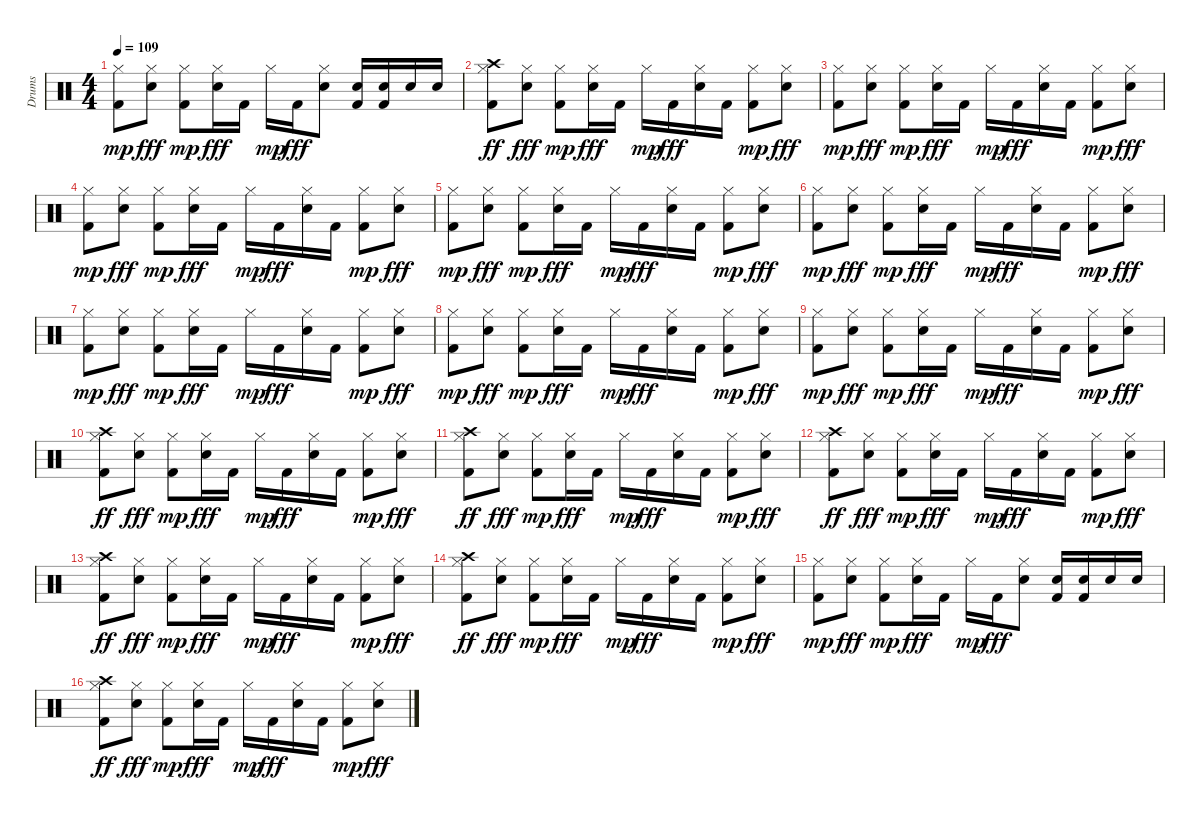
\track ("Drums" "Drums") {instrument percussion}
\staff {score}
\articulation defaults
\ts (4 4)
\tempo 109
\clef neutral
\ks c
("Kick (hit) 2" "Hi-Hat (closed)").8{dy mp} ("Snare (hit) 2" "Hi-Hat (closed)").8{dy fff} ("Kick (hit) 2" "Hi-Hat (closed)").8{dy mp} ("Snare (hit) 2" "Hi-Hat (closed)").16{dy fff} "Kick (hit) 2".16 "Hi-Hat (closed)".16{dy mp} "Kick (hit) 2".16{dy fff} ("Snare (hit) 2" "Hi-Hat (closed)").8 ("Snare (hit) 2" "Kick (hit) 2").16 ("Snare (hit) 2" "Kick (hit) 2").16 "Snare (hit) 2".16 "Snare (hit) 2".16 |
("Kick (hit) 2" "Hi-Hat (closed)" "Crash high (hit)").8{dy ff} ("Snare (hit) 2" "Hi-Hat (closed)").8{dy fff} ("Kick (hit) 2" "Hi-Hat (closed)").8{dy mp} ("Snare (hit) 2" "Hi-Hat (closed)").16{dy fff} "Kick (hit) 2".16 "Hi-Hat (closed)".16{dy mp} "Kick (hit) 2".16{dy fff} ("Snare (hit) 2" "Hi-Hat (closed)").16 "Kick (hit) 2".16 ("Kick (hit) 2" "Hi-Hat (closed)").8{dy mp} ("Snare (hit) 2" "Hi-Hat (closed)").8{dy fff} |
("Kick (hit) 2" "Hi-Hat (closed)").8{dy mp} ("Snare (hit) 2" "Hi-Hat (closed)").8{dy fff} ("Kick (hit) 2" "Hi-Hat (closed)").8{dy mp} ("Snare (hit) 2" "Hi-Hat (closed)").16{dy fff} "Kick (hit) 2".16 "Hi-Hat (closed)".16{dy mp} "Kick (hit) 2".16{dy fff} ("Snare (hit) 2" "Hi-Hat (closed)").16 "Kick (hit) 2".16 ("Kick (hit) 2" "Hi-Hat (closed)").8{dy mp} ("Snare (hit) 2" "Hi-Hat (closed)").8{dy fff} |
("Kick (hit) 2" "Hi-Hat (closed)").8{dy mp} ("Snare (hit) 2" "Hi-Hat (closed)").8{dy fff} ("Kick (hit) 2" "Hi-Hat (closed)").8{dy mp} ("Snare (hit) 2" "Hi-Hat (closed)").16{dy fff} "Kick (hit) 2".16 "Hi-Hat (closed)".16{dy mp} "Kick (hit) 2".16{dy fff} ("Snare (hit) 2" "Hi-Hat (closed)").16 "Kick (hit) 2".16 ("Kick (hit) 2" "Hi-Hat (closed)").8{dy mp} ("Snare (hit) 2" "Hi-Hat (closed)").8{dy fff} |
("Kick (hit) 2" "Hi-Hat (closed)").8{dy mp} ("Snare (hit) 2" "Hi-Hat (closed)").8{dy fff} ("Kick (hit) 2" "Hi-Hat (closed)").8{dy mp} ("Snare (hit) 2" "Hi-Hat (closed)").16{dy fff} "Kick (hit) 2".16 "Hi-Hat (closed)".16{dy mp} "Kick (hit) 2".16{dy fff} ("Snare (hit) 2" "Hi-Hat (closed)").16 "Kick (hit) 2".16 ("Kick (hit) 2" "Hi-Hat (closed)").8{dy mp} ("Snare (hit) 2" "Hi-Hat (closed)").8{dy fff} |
("Kick (hit) 2" "Hi-Hat (closed)").8{dy mp} ("Snare (hit) 2" "Hi-Hat (closed)").8{dy fff} ("Kick (hit) 2" "Hi-Hat (closed)").8{dy mp} ("Snare (hit) 2" "Hi-Hat (closed)").16{dy fff} "Kick (hit) 2".16 "Hi-Hat (closed)".16{dy mp} "Kick (hit) 2".16{dy fff} ("Snare (hit) 2" "Hi-Hat (closed)").16 "Kick (hit) 2".16 ("Kick (hit) 2" "Hi-Hat (closed)").8{dy mp} ("Snare (hit) 2" "Hi-Hat (closed)").8{dy fff} |
("Kick (hit) 2" "Hi-Hat (closed)").8{dy mp} ("Snare (hit) 2" "Hi-Hat (closed)").8{dy fff} ("Kick (hit) 2" "Hi-Hat (closed)").8{dy mp} ("Snare (hit) 2" "Hi-Hat (closed)").16{dy fff} "Kick (hit) 2".16 "Hi-Hat (closed)".16{dy mp} "Kick (hit) 2".16{dy fff} ("Snare (hit) 2" "Hi-Hat (closed)").16 "Kick (hit) 2".16 ("Kick (hit) 2" "Hi-Hat (closed)").8{dy mp} ("Snare (hit) 2" "Hi-Hat (closed)").8{dy fff} |
("Kick (hit) 2" "Hi-Hat (closed)").8{dy mp} ("Snare (hit) 2" "Hi-Hat (closed)").8{dy fff} ("Kick (hit) 2" "Hi-Hat (closed)").8{dy mp} ("Snare (hit) 2" "Hi-Hat (closed)").16{dy fff} "Kick (hit) 2".16 "Hi-Hat (closed)".16{dy mp} "Kick (hit) 2".16{dy fff} ("Snare (hit) 2" "Hi-Hat (closed)").16 "Kick (hit) 2".16 ("Kick (hit) 2" "Hi-Hat (closed)").8{dy mp} ("Snare (hit) 2" "Hi-Hat (closed)").8{dy fff} |
("Kick (hit) 2" "Hi-Hat (closed)").8{dy mp} ("Snare (hit) 2" "Hi-Hat (closed)").8{dy fff} ("Kick (hit) 2" "Hi-Hat (closed)").8{dy mp} ("Snare (hit) 2" "Hi-Hat (closed)").16{dy fff} "Kick (hit) 2".16 "Hi-Hat (closed)".16{dy mp} "Kick (hit) 2".16{dy fff} ("Snare (hit) 2" "Hi-Hat (closed)").16 "Kick (hit) 2".16 ("Kick (hit) 2" "Hi-Hat (closed)").8{dy mp} ("Snare (hit) 2" "Hi-Hat (closed)").8{dy fff} |
("Kick (hit) 2" "Hi-Hat (closed)" "Crash high (hit)").8{dy ff} ("Snare (hit) 2" "Hi-Hat (closed)").8{dy fff} ("Kick (hit) 2" "Hi-Hat (closed)").8{dy mp} ("Snare (hit) 2" "Hi-Hat (closed)").16{dy fff} "Kick (hit) 2".16 "Hi-Hat (closed)".16{dy mp} "Kick (hit) 2".16{dy fff} ("Snare (hit) 2" "Hi-Hat (closed)").16 "Kick (hit) 2".16 ("Kick (hit) 2" "Hi-Hat (closed)").8{dy mp} ("Snare (hit) 2" "Hi-Hat (closed)").8{dy fff} |
("Kick (hit) 2" "Hi-Hat (closed)" "Crash high (hit)").8{dy ff} ("Snare (hit) 2" "Hi-Hat (closed)").8{dy fff} ("Kick (hit) 2" "Hi-Hat (closed)").8{dy mp} ("Snare (hit) 2" "Hi-Hat (closed)").16{dy fff} "Kick (hit) 2".16 "Hi-Hat (closed)".16{dy mp} "Kick (hit) 2".16{dy fff} ("Snare (hit) 2" "Hi-Hat (closed)").16 "Kick (hit) 2".16 ("Kick (hit) 2" "Hi-Hat (closed)").8{dy mp} ("Snare (hit) 2" "Hi-Hat (closed)").8{dy fff} |
("Kick (hit) 2" "Hi-Hat (closed)" "Crash high (hit)").8{dy ff} ("Snare (hit) 2" "Hi-Hat (closed)").8{dy fff} ("Kick (hit) 2" "Hi-Hat (closed)").8{dy mp} ("Snare (hit) 2" "Hi-Hat (closed)").16{dy fff} "Kick (hit) 2".16 "Hi-Hat (closed)".16{dy mp} "Kick (hit) 2".16{dy fff} ("Snare (hit) 2" "Hi-Hat (closed)").16 "Kick (hit) 2".16 ("Kick (hit) 2" "Hi-Hat (closed)").8{dy mp} ("Snare (hit) 2" "Hi-Hat (closed)").8{dy fff} |
("Kick (hit) 2" "Hi-Hat (closed)" "Crash high (hit)").8{dy ff} ("Snare (hit) 2" "Hi-Hat (closed)").8{dy fff} ("Kick (hit) 2" "Hi-Hat (closed)").8{dy mp} ("Snare (hit) 2" "Hi-Hat (closed)").16{dy fff} "Kick (hit) 2".16 "Hi-Hat (closed)".16{dy mp} "Kick (hit) 2".16{dy fff} ("Snare (hit) 2" "Hi-Hat (closed)").16 "Kick (hit) 2".16 ("Kick (hit) 2" "Hi-Hat (closed)").8{dy mp} ("Snare (hit) 2" "Hi-Hat (closed)").8{dy fff} |
("Kick (hit) 2" "Hi-Hat (closed)" "Crash high (hit)").8{dy ff} ("Snare (hit) 2" "Hi-Hat (closed)").8{dy fff} ("Kick (hit) 2" "Hi-Hat (closed)").8{dy mp} ("Snare (hit) 2" "Hi-Hat (closed)").16{dy fff} "Kick (hit) 2".16 "Hi-Hat (closed)".16{dy mp} "Kick (hit) 2".16{dy fff} ("Snare (hit) 2" "Hi-Hat (closed)").16 "Kick (hit) 2".16 ("Kick (hit) 2" "Hi-Hat (closed)").8{dy mp} ("Snare (hit) 2" "Hi-Hat (closed)").8{dy fff} |
("Kick (hit) 2" "Hi-Hat (closed)").8{dy mp} ("Snare (hit) 2" "Hi-Hat (closed)").8{dy fff} ("Kick (hit) 2" "Hi-Hat (closed)").8{dy mp} ("Snare (hit) 2" "Hi-Hat (closed)").16{dy fff} "Kick (hit) 2".16 "Hi-Hat (closed)".16{dy mp} "Kick (hit) 2".16{dy fff} ("Snare (hit) 2" "Hi-Hat (closed)").8 ("Snare (hit) 2" "Kick (hit) 2").16 ("Snare (hit) 2" "Kick (hit) 2").16 "Snare (hit) 2".16 "Snare (hit) 2".16 |
("Kick (hit) 2" "Hi-Hat (closed)" "Crash high (hit)").8{dy ff} ("Snare (hit) 2" "Hi-Hat (closed)").8{dy fff} ("Kick (hit) 2" "Hi-Hat (closed)").8{dy mp} ("Snare (hit) 2" "Hi-Hat (closed)").16{dy fff} "Kick (hit) 2".16 "Hi-Hat (closed)".16{dy mp} "Kick (hit) 2".16{dy fff} ("Snare (hit) 2" "Hi-Hat (closed)").16 "Kick (hit) 2".16 ("Kick (hit) 2" "Hi-Hat (closed)").8{dy mp} ("Snare (hit) 2" "Hi-Hat (closed)").8{dy fff}
